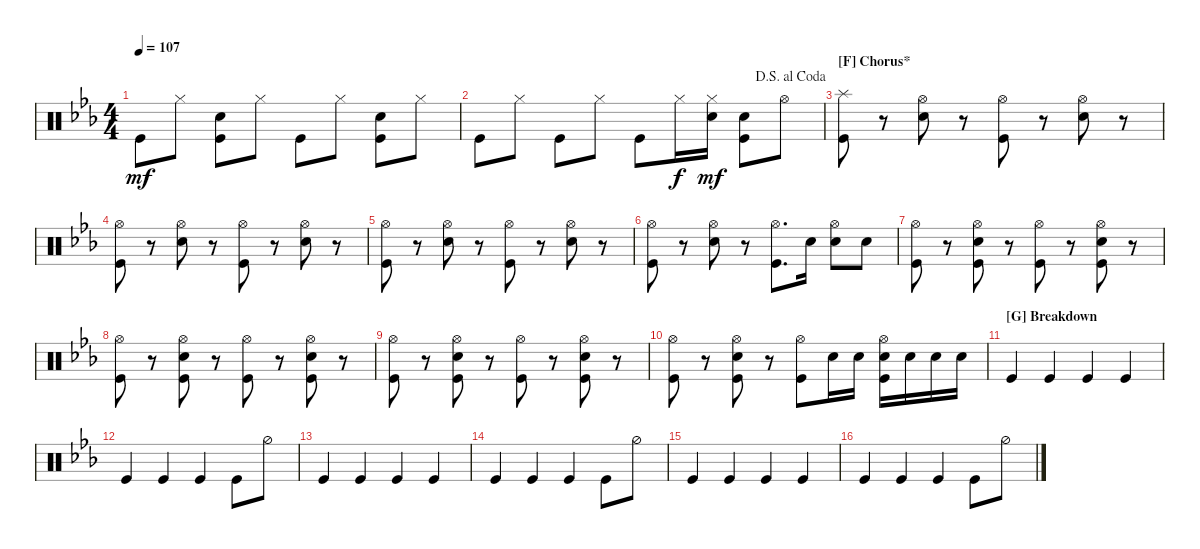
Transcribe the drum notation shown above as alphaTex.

\defaultSystemsLayout 4
\bracketExtendMode groupsimilarinstruments
\singleTrackTrackNamePolicy hidden
\firstSystemTrackNameOrientation horizontal
\otherSystemsTrackNameOrientation horizontal
\chordDiagramsInScore
\track ("Drumkit" "Drums") {instrument percussion}
\staff {score}
\articulation defaults
\ts (4 4)
\tempo 107
\clef neutral
\ks cminor "Kick (hit)".8{dy mf} "Hi-Hat (closed)".8
("Snare (hit) 2" "Kick (hit)").8 "Hi-Hat (closed)".8 "Kick (hit)".8 "Hi-Hat (closed)".8 ("Snare (hit) 2" "Kick (hit)").8 "Hi-Hat (closed)".8 |
\jump dalsegnoalcoda "Kick (hit)".8 "Hi-Hat (closed)".8 "Kick (hit)".8 "Hi-Hat (closed)".8 "Kick (hit)".8 "Hi-Hat (closed)".16{dy f}
("Hi-Hat (closed)" "Snare (hit) 2").16{dy mf} ("Kick (hit)" "Snare (hit) 2").8 "Hi-Hat (open)".8 |
\section ("F" "Chorus*")
("Kick (hit)" "Splash (hit)").8 r.8 ("Snare (hit) 2" "Hi-Hat (open)").8 r.8 ("Kick (hit)" "Hi-Hat (open)").8 r.8 ("Snare (hit) 2" "Hi-Hat (open)").8 r.8 |
("Kick (hit)" "Hi-Hat (open)").8 r.8 ("Snare (hit) 2" "Hi-Hat (open)").8 r.8 ("Kick (hit)" "Hi-Hat (open)").8 r.8 ("Snare (hit) 2" "Hi-Hat (open)").8 r.8 |
("Kick (hit)" "Hi-Hat (open)").8 r.8 ("Snare (hit) 2" "Hi-Hat (open)").8 r.8 ("Kick (hit)" "Hi-Hat (open)").8 r.8 ("Snare (hit) 2" "Hi-Hat (open)").8 r.8 |
("Kick (hit)" "Hi-Hat (open)").8 r.8 ("Snare (hit) 2" "Hi-Hat (open)").8 r.8 ("Kick (hit)" "Hi-Hat (open)").8{d} "Snare (hit) 2".16 ("Snare (hit) 2" "Hi-Hat (open)").8 "Snare (hit) 2".8 |
("Kick (hit)" "Hi-Hat (open)").8 r.8 ("Snare (hit) 2" "Hi-Hat (open)" "Kick (hit)").8 r.8 ("Kick (hit)" "Hi-Hat (open)").8 r.8 ("Snare (hit) 2" "Hi-Hat (open)" "Kick (hit)").8 r.8 |
("Kick (hit)" "Hi-Hat (open)").8 r.8 ("Snare (hit) 2" "Hi-Hat (open)" "Kick (hit)").8 r.8 ("Kick (hit)" "Hi-Hat (open)").8 r.8 ("Snare (hit) 2" "Hi-Hat (open)" "Kick (hit)").8 r.8 |
("Kick (hit)" "Hi-Hat (open)").8 r.8 ("Snare (hit) 2" "Hi-Hat (open)" "Kick (hit)").8 r.8 ("Kick (hit)" "Hi-Hat (open)").8 r.8 ("Snare (hit) 2" "Hi-Hat (open)" "Kick (hit)").8 r.8 |
("Kick (hit)" "Hi-Hat (open)").8 r.8 ("Snare (hit) 2" "Hi-Hat (open)" "Kick (hit)").8 r.8 ("Kick (hit)" "Hi-Hat (open)").8 "Snare (hit) 2".16 "Snare (hit) 2".16 ("Snare (hit) 2" "Kick (hit)" "Hi-Hat (open)").16 "Snare (hit) 2".16 "Snare (hit) 2".16 "Snare (hit) 2".16 |
\section ("G" "Breakdown")
"Kick (hit)".4 "Kick (hit)".4 "Kick (hit)".4 "Kick (hit)".4 |
"Kick (hit)".4 "Kick (hit)".4 "Kick (hit)".4 "Kick (hit)".8 "Hi-Hat (half)".8 |
"Kick (hit)".4 "Kick (hit)".4 "Kick (hit)".4 "Kick (hit)".4 |
"Kick (hit)".4 "Kick (hit)".4 "Kick (hit)".4 "Kick (hit)".8 "Hi-Hat (half)".8 |
"Kick (hit)".4 "Kick (hit)".4 "Kick (hit)".4 "Kick (hit)".4 |
"Kick (hit)".4 "Kick (hit)".4 "Kick (hit)".4 "Kick (hit)".8 "Hi-Hat (half)".8
